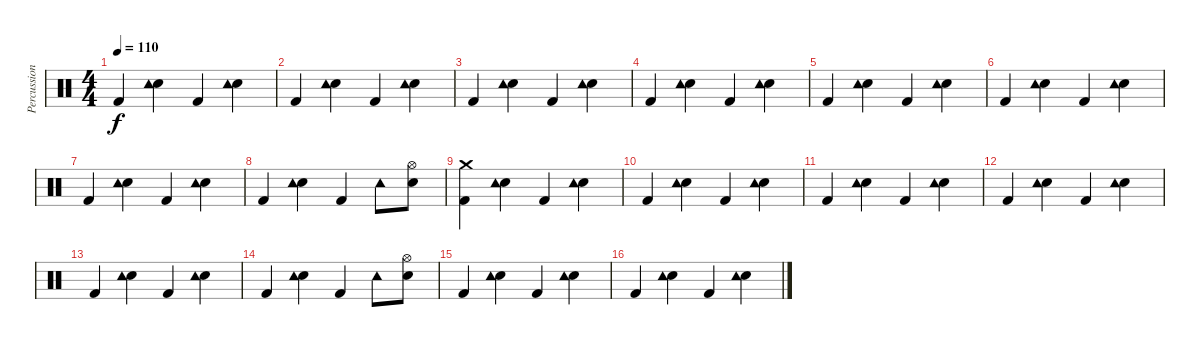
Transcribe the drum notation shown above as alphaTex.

\track ("Percussion" "Percussion") {instrument percussion}
\staff {score}
\articulation defaults
\ts (4 4)
\tempo 110
\clef neutral
\ks c "Kick (hit) 2".4{dy f}
("Electric Snare (hit)" "Tambourine (hit)").4 "Kick (hit) 2".4 ("Electric Snare (hit)" "Tambourine (hit)").4 |
"Kick (hit) 2".4 ("Electric Snare (hit)" "Tambourine (hit)").4 "Kick (hit) 2".4 ("Electric Snare (hit)" "Tambourine (hit)").4 |
"Kick (hit) 2".4 ("Electric Snare (hit)" "Tambourine (hit)").4 "Kick (hit) 2".4 ("Electric Snare (hit)" "Tambourine (hit)").4 |
"Kick (hit) 2".4 ("Electric Snare (hit)" "Tambourine (hit)").4 "Kick (hit) 2".4 ("Electric Snare (hit)" "Tambourine (hit)").4 |
"Kick (hit) 2".4 ("Electric Snare (hit)" "Tambourine (hit)").4 "Kick (hit) 2".4 ("Electric Snare (hit)" "Tambourine (hit)").4 |
"Kick (hit) 2".4 ("Electric Snare (hit)" "Tambourine (hit)").4 "Kick (hit) 2".4 ("Electric Snare (hit)" "Tambourine (hit)").4 |
"Kick (hit) 2".4 ("Electric Snare (hit)" "Tambourine (hit)").4 "Kick (hit) 2".4 ("Electric Snare (hit)" "Tambourine (hit)").4 |
"Kick (hit) 2".4 ("Electric Snare (hit)" "Tambourine (hit)").4 "Kick (hit) 2".4 "Tambourine (hit)".8 ("Electric Snare (hit)" "Hi-Hat (open)").8 |
("Kick (hit) 2" "Crash medium (hit)").4 ("Electric Snare (hit)" "Tambourine (hit)").4 "Kick (hit) 2".4 ("Electric Snare (hit)" "Tambourine (hit)").4 |
"Kick (hit) 2".4 ("Electric Snare (hit)" "Tambourine (hit)").4 "Kick (hit) 2".4 ("Electric Snare (hit)" "Tambourine (hit)").4 |
"Kick (hit) 2".4 ("Electric Snare (hit)" "Tambourine (hit)").4 "Kick (hit) 2".4 ("Electric Snare (hit)" "Tambourine (hit)").4 |
"Kick (hit) 2".4 ("Electric Snare (hit)" "Tambourine (hit)").4 "Kick (hit) 2".4 ("Electric Snare (hit)" "Tambourine (hit)").4 |
"Kick (hit) 2".4 ("Electric Snare (hit)" "Tambourine (hit)").4 "Kick (hit) 2".4 ("Electric Snare (hit)" "Tambourine (hit)").4 |
"Kick (hit) 2".4 ("Electric Snare (hit)" "Tambourine (hit)").4 "Kick (hit) 2".4 "Tambourine (hit)".8 ("Electric Snare (hit)" "Hi-Hat (open)").8 |
"Kick (hit) 2".4 ("Electric Snare (hit)" "Tambourine (hit)").4 "Kick (hit) 2".4 ("Electric Snare (hit)" "Tambourine (hit)").4 |
"Kick (hit) 2".4 ("Electric Snare (hit)" "Tambourine (hit)").4 "Kick (hit) 2".4 ("Electric Snare (hit)" "Tambourine (hit)").4
